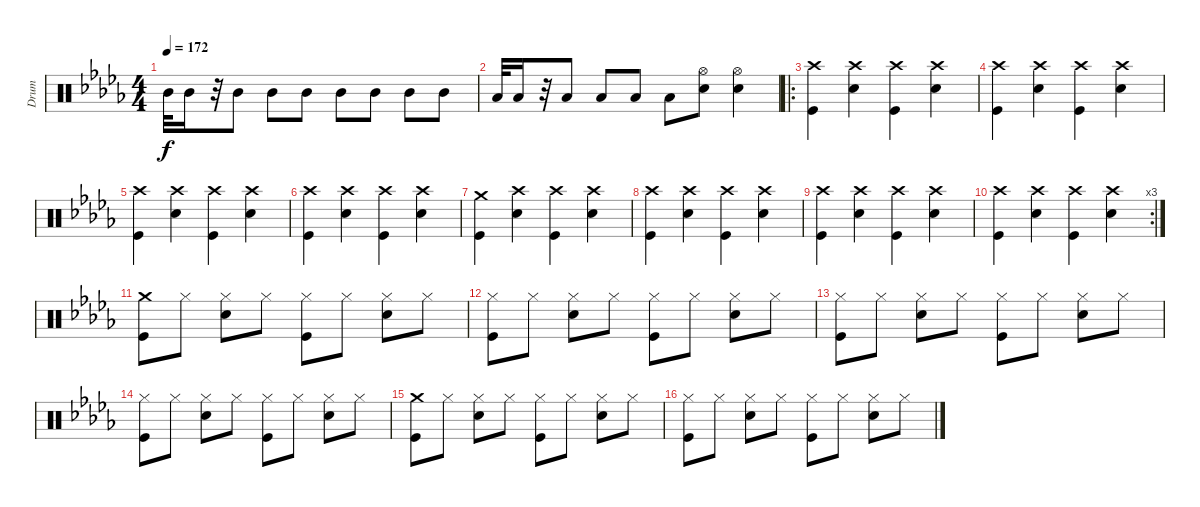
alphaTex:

\track ("Drum" "Drum") {instrument percussion}
\staff {score}
\articulation defaults
\ts (4 4)
\tempo 172
\clef neutral
\ks db "Mid Tom (hit)".32{dy f} "Mid Tom (hit)".16
r.32 "Mid Tom (hit)".8 "Mid Tom (hit)".8 "Mid Tom (hit)".8 "Mid Tom (hit)".8 "Mid Tom (hit)".8 "Mid Tom (hit)".8 "Mid Tom (hit)".8 |
"Low Tom (hit)".32 "Low Tom (hit)".16 r.32 "Low Tom (hit)".8 "Low Tom (hit)".8 "Low Tom (hit)".8 "Low Tom (hit)".8 ("Hi-Hat (open)" "Snare (hit) 2").8 ("Hi-Hat (open)" "Snare (hit) 2").4 |
\ro
("Crash high (hit)" "Kick (hit)").4 ("Crash high (hit)" "Snare (hit) 2").4 ("Crash high (hit)" "Kick (hit)").4 ("Crash high (hit)" "Snare (hit) 2").4 |
("Crash high (hit)" "Kick (hit)").4 ("Crash high (hit)" "Snare (hit) 2").4 ("Crash high (hit)" "Kick (hit)").4 ("Crash high (hit)" "Snare (hit) 2").4 |
("Crash high (hit)" "Kick (hit)").4 ("Crash high (hit)" "Snare (hit) 2").4 ("Crash high (hit)" "Kick (hit)").4 ("Crash high (hit)" "Snare (hit) 2").4 |
("Crash high (hit)" "Kick (hit)").4 ("Crash high (hit)" "Snare (hit) 2").4 ("Crash high (hit)" "Kick (hit)").4 ("Crash high (hit)" "Snare (hit) 2").4 |
("Crash medium (hit)" "Kick (hit)").4 ("Crash high (hit)" "Snare (hit) 2").4 ("Crash high (hit)" "Kick (hit)").4 ("Crash high (hit)" "Snare (hit) 2").4 |
("Crash high (hit)" "Kick (hit)").4 ("Crash high (hit)" "Snare (hit) 2").4 ("Crash high (hit)" "Kick (hit)").4 ("Crash high (hit)" "Snare (hit) 2").4 |
("Crash high (hit)" "Kick (hit)").4 ("Crash high (hit)" "Snare (hit) 2").4 ("Crash high (hit)" "Kick (hit)").4 ("Crash high (hit)" "Snare (hit) 2").4 |
\rc 3
("Crash high (hit)" "Kick (hit)").4 ("Crash high (hit)" "Snare (hit) 2").4 ("Crash high (hit)" "Kick (hit)").4 ("Crash high (hit)" "Snare (hit) 2").4 |
("Crash medium (hit)" "Kick (hit)").8 "Hi-Hat (closed)".8 ("Hi-Hat (closed)" "Snare (hit) 2").8 "Hi-Hat (closed)".8 ("Hi-Hat (closed)" "Kick (hit)").8 "Hi-Hat (closed)".8 ("Hi-Hat (closed)" "Snare (hit) 2").8 "Hi-Hat (closed)".8 |
("Hi-Hat (closed)" "Kick (hit)").8 "Hi-Hat (closed)".8 ("Hi-Hat (closed)" "Snare (hit) 2").8 "Hi-Hat (closed)".8 ("Hi-Hat (closed)" "Kick (hit)").8 "Hi-Hat (closed)".8 ("Hi-Hat (closed)" "Snare (hit) 2").8 "Hi-Hat (closed)".8 |
("Hi-Hat (closed)" "Kick (hit)").8 "Hi-Hat (closed)".8 ("Hi-Hat (closed)" "Snare (hit) 2").8 "Hi-Hat (closed)".8 ("Hi-Hat (closed)" "Kick (hit)").8 "Hi-Hat (closed)".8 ("Hi-Hat (closed)" "Snare (hit) 2").8 "Hi-Hat (closed)".8 |
("Hi-Hat (closed)" "Kick (hit)").8 "Hi-Hat (closed)".8 ("Hi-Hat (closed)" "Snare (hit) 2").8 "Hi-Hat (closed)".8 ("Hi-Hat (closed)" "Kick (hit)").8 "Hi-Hat (closed)".8 ("Hi-Hat (closed)" "Snare (hit) 2").8 "Hi-Hat (closed)".8 |
("Crash medium (hit)" "Kick (hit)").8 "Hi-Hat (closed)".8 ("Hi-Hat (closed)" "Snare (hit) 2").8 "Hi-Hat (closed)".8 ("Hi-Hat (closed)" "Kick (hit)").8 "Hi-Hat (closed)".8 ("Hi-Hat (closed)" "Snare (hit) 2").8 "Hi-Hat (closed)".8 |
("Hi-Hat (closed)" "Kick (hit)").8 "Hi-Hat (closed)".8 ("Hi-Hat (closed)" "Snare (hit) 2").8 "Hi-Hat (closed)".8 ("Hi-Hat (closed)" "Kick (hit)").8 "Hi-Hat (closed)".8 ("Hi-Hat (closed)" "Snare (hit) 2").8 "Hi-Hat (closed)".8
